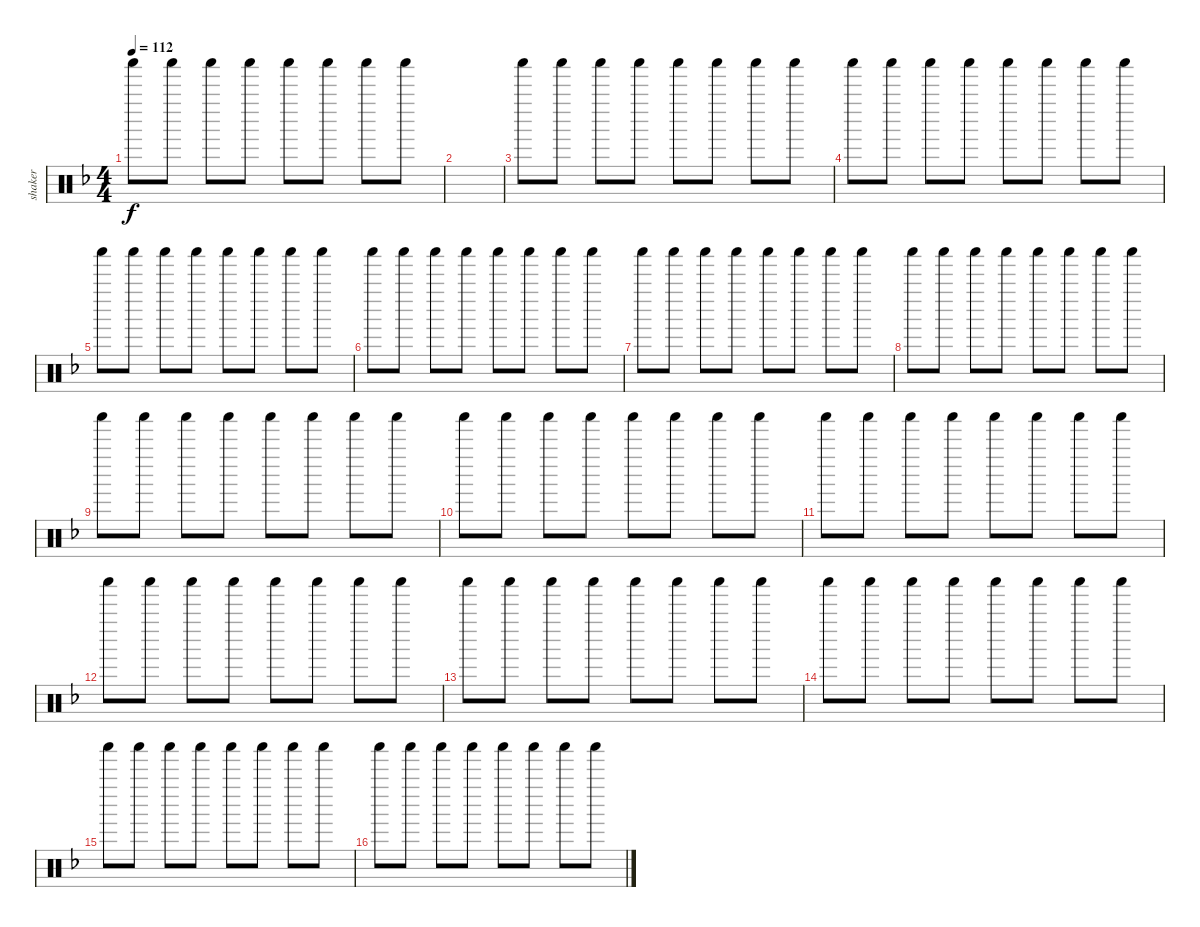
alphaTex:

\track ("shaker" "shaker") {instrument percussion}
\staff {score}
\articulation defaults
\ts (4 4)
\tempo 112
\clef neutral
\ks f "Shaker (hit)".8{dy f} "Shaker (hit)".8 "Shaker (hit)".8 "Shaker (hit)".8 "Shaker (hit)".8 "Shaker (hit)".8 "Shaker (hit)".8 "Shaker (hit)".8
|
|
"Shaker (hit)".8 "Shaker (hit)".8 "Shaker (hit)".8 "Shaker (hit)".8 "Shaker (hit)".8 "Shaker (hit)".8 "Shaker (hit)".8 "Shaker (hit)".8 |
"Shaker (hit)".8 "Shaker (hit)".8 "Shaker (hit)".8 "Shaker (hit)".8 "Shaker (hit)".8 "Shaker (hit)".8 "Shaker (hit)".8 "Shaker (hit)".8 |
"Shaker (hit)".8 "Shaker (hit)".8 "Shaker (hit)".8 "Shaker (hit)".8 "Shaker (hit)".8 "Shaker (hit)".8 "Shaker (hit)".8 "Shaker (hit)".8 |
"Shaker (hit)".8 "Shaker (hit)".8 "Shaker (hit)".8 "Shaker (hit)".8 "Shaker (hit)".8 "Shaker (hit)".8 "Shaker (hit)".8 "Shaker (hit)".8 |
"Shaker (hit)".8 "Shaker (hit)".8 "Shaker (hit)".8 "Shaker (hit)".8 "Shaker (hit)".8 "Shaker (hit)".8 "Shaker (hit)".8 "Shaker (hit)".8 |
"Shaker (hit)".8 "Shaker (hit)".8 "Shaker (hit)".8 "Shaker (hit)".8 "Shaker (hit)".8 "Shaker (hit)".8 "Shaker (hit)".8 "Shaker (hit)".8 |
"Shaker (hit)".8 "Shaker (hit)".8 "Shaker (hit)".8 "Shaker (hit)".8 "Shaker (hit)".8 "Shaker (hit)".8 "Shaker (hit)".8 "Shaker (hit)".8 |
"Shaker (hit)".8 "Shaker (hit)".8 "Shaker (hit)".8 "Shaker (hit)".8 "Shaker (hit)".8 "Shaker (hit)".8 "Shaker (hit)".8 "Shaker (hit)".8 |
"Shaker (hit)".8 "Shaker (hit)".8 "Shaker (hit)".8 "Shaker (hit)".8 "Shaker (hit)".8 "Shaker (hit)".8 "Shaker (hit)".8 "Shaker (hit)".8 |
"Shaker (hit)".8 "Shaker (hit)".8 "Shaker (hit)".8 "Shaker (hit)".8 "Shaker (hit)".8 "Shaker (hit)".8 "Shaker (hit)".8 "Shaker (hit)".8 |
"Shaker (hit)".8 "Shaker (hit)".8 "Shaker (hit)".8 "Shaker (hit)".8 "Shaker (hit)".8 "Shaker (hit)".8 "Shaker (hit)".8 "Shaker (hit)".8 |
"Shaker (hit)".8 "Shaker (hit)".8 "Shaker (hit)".8 "Shaker (hit)".8 "Shaker (hit)".8 "Shaker (hit)".8 "Shaker (hit)".8 "Shaker (hit)".8 |
"Shaker (hit)".8 "Shaker (hit)".8 "Shaker (hit)".8 "Shaker (hit)".8 "Shaker (hit)".8 "Shaker (hit)".8 "Shaker (hit)".8 "Shaker (hit)".8 |
"Shaker (hit)".8 "Shaker (hit)".8 "Shaker (hit)".8 "Shaker (hit)".8 "Shaker (hit)".8 "Shaker (hit)".8 "Shaker (hit)".8 "Shaker (hit)".8
